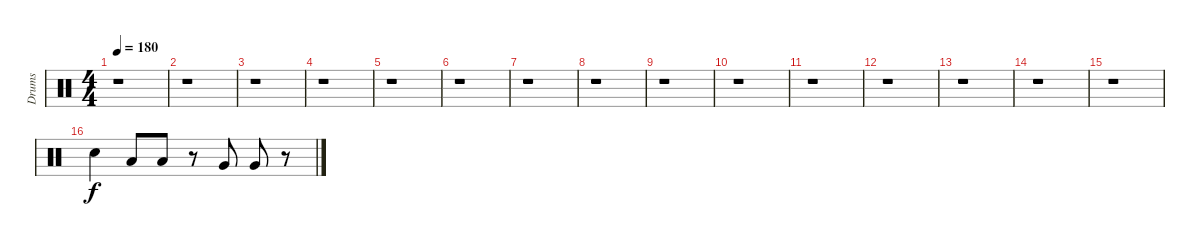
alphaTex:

\track ("Drums" "Drums") {instrument percussion}
\staff {score}
\articulation defaults
\ts (4 4)
\tempo 180
\clef neutral
\ks c
r.1{dy f} |
r.1 |
r.1 |
r.1 |
r.1 |
r.1 |
r.1 |
r.1 |
r.1 |
r.1 |
r.1 |
r.1 |
r.1 |
r.1 |
r.1 |
"Snare (hit) 2".4 "Low Tom (hit)".8 "Low Tom (hit)".8 r.8 "Very Low Tom (hit)".8 "Very Low Tom (hit)".8 r.8
